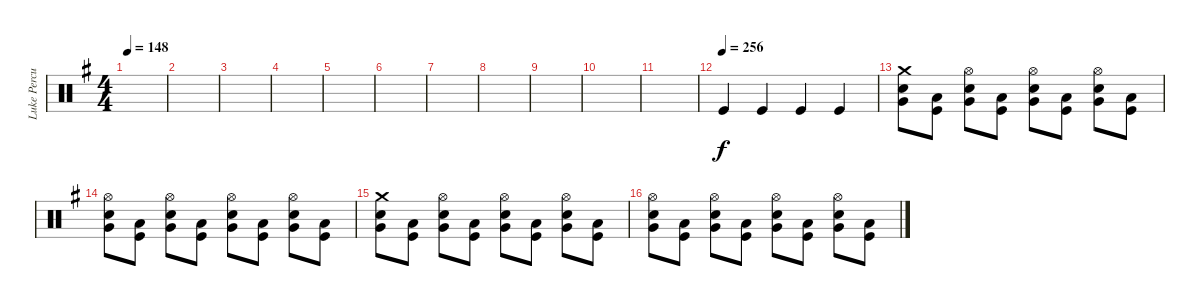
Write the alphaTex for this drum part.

\track ("Luke Percussion" "Luke Percu") {instrument percussion}
\staff {score}
\articulation defaults
\ts (4 4)
\tempo 148
\clef neutral
\ks eminor
|
|
|
|
|
|
|
|
|
|
|
\tempo (256)
"Kick (hit)".4 "Kick (hit)".4 "Kick (hit)".4 "Kick (hit)".4 |
("Crash medium (hit)" "Snare (hit) 2" "Very Low Tom (hit)").8 ("Low Floor Tom (hit)" "Kick (hit)").8 ("Hi-Hat (open)" "Snare (hit) 2" "Very Low Tom (hit)").8 ("Low Floor Tom (hit)" "Kick (hit)").8 ("Hi-Hat (open)" "Snare (hit) 2" "Very Low Tom (hit)").8 ("Low Floor Tom (hit)" "Kick (hit)").8 ("Hi-Hat (open)" "Snare (hit) 2" "Very Low Tom (hit)").8 ("Low Floor Tom (hit)" "Kick (hit)").8 |
("Hi-Hat (open)" "Snare (hit) 2" "Very Low Tom (hit)").8 ("Low Floor Tom (hit)" "Kick (hit)").8 ("Hi-Hat (open)" "Snare (hit) 2" "Very Low Tom (hit)").8 ("Low Floor Tom (hit)" "Kick (hit)").8 ("Hi-Hat (open)" "Snare (hit) 2" "Very Low Tom (hit)").8 ("Low Floor Tom (hit)" "Kick (hit)").8 ("Hi-Hat (open)" "Snare (hit) 2" "Very Low Tom (hit)").8 ("Low Floor Tom (hit)" "Kick (hit)").8 |
("Crash medium (hit)" "Snare (hit) 2" "Very Low Tom (hit)").8 ("Low Floor Tom (hit)" "Kick (hit)").8 ("Hi-Hat (open)" "Snare (hit) 2" "Very Low Tom (hit)").8 ("Low Floor Tom (hit)" "Kick (hit)").8 ("Hi-Hat (open)" "Snare (hit) 2" "Very Low Tom (hit)").8 ("Low Floor Tom (hit)" "Kick (hit)").8 ("Hi-Hat (open)" "Snare (hit) 2" "Very Low Tom (hit)").8 ("Low Floor Tom (hit)" "Kick (hit)").8 |
("Hi-Hat (open)" "Snare (hit) 2" "Very Low Tom (hit)").8 ("Low Floor Tom (hit)" "Kick (hit)").8 ("Hi-Hat (open)" "Snare (hit) 2" "Very Low Tom (hit)").8 ("Low Floor Tom (hit)" "Kick (hit)").8 ("Hi-Hat (open)" "Snare (hit) 2" "Very Low Tom (hit)").8 ("Low Floor Tom (hit)" "Kick (hit)").8 ("Hi-Hat (open)" "Snare (hit) 2" "Very Low Tom (hit)").8 ("Low Floor Tom (hit)" "Kick (hit)").8
